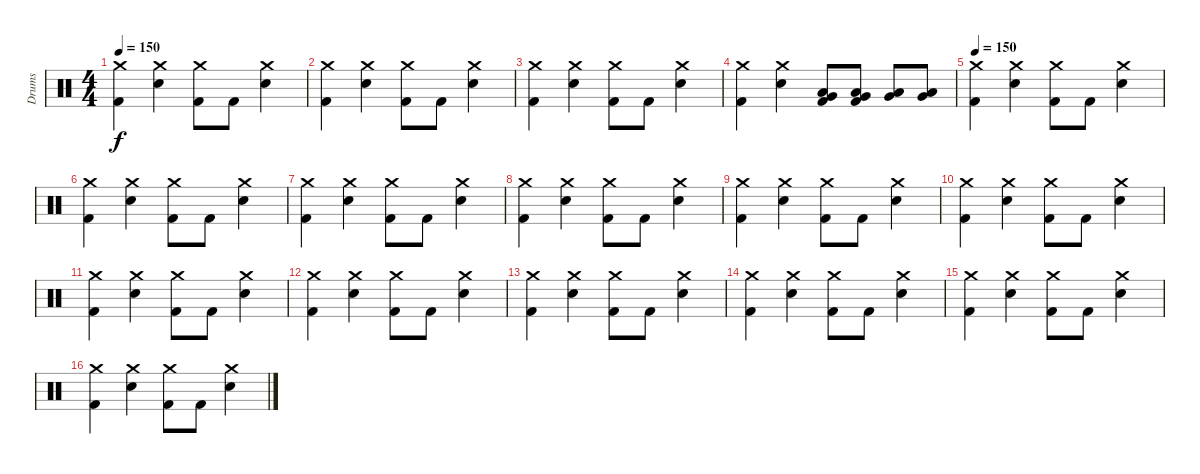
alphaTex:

\track ("Drums" "Drums") {instrument percussion}
\staff {score}
\articulation defaults
\ts (4 4)
\tempo 150
\clef neutral
\ks c
("Crash medium (hit)" "Kick (hit) 2").4{dy f} ("Crash medium (hit)" "Snare (hit) 2").4 ("Crash medium (hit)" "Kick (hit) 2").8 "Kick (hit) 2".8 ("Crash medium (hit)" "Snare (hit) 2").4 |
("Crash medium (hit)" "Kick (hit) 2").4 ("Crash medium (hit)" "Snare (hit) 2").4 ("Crash medium (hit)" "Kick (hit) 2").8 "Kick (hit) 2".8 ("Crash medium (hit)" "Snare (hit) 2").4 |
("Crash medium (hit)" "Kick (hit) 2").4 ("Crash medium (hit)" "Snare (hit) 2").4 ("Crash medium (hit)" "Kick (hit) 2").8 "Kick (hit) 2".8 ("Crash medium (hit)" "Snare (hit) 2").4 |
("Crash medium (hit)" "Kick (hit) 2").4 ("Crash medium (hit)" "Snare (hit) 2").4 ("Very Low Tom (hit)" "Low Floor Tom (hit)" "Kick (hit) 2").8 ("Very Low Tom (hit)" "Low Floor Tom (hit)" "Kick (hit) 2").8 ("Very Low Tom (hit)" "Low Floor Tom (hit)").8 ("Very Low Tom (hit)" "Low Floor Tom (hit)").8 |
\tempo 150
("Crash medium (hit)" "Kick (hit) 2").4 ("Crash medium (hit)" "Snare (hit) 2").4 ("Crash medium (hit)" "Kick (hit) 2").8 "Kick (hit) 2".8 ("Crash medium (hit)" "Snare (hit) 2").4 |
("Crash medium (hit)" "Kick (hit) 2").4 ("Crash medium (hit)" "Snare (hit) 2").4 ("Crash medium (hit)" "Kick (hit) 2").8 "Kick (hit) 2".8 ("Crash medium (hit)" "Snare (hit) 2").4 |
("Crash medium (hit)" "Kick (hit) 2").4 ("Crash medium (hit)" "Snare (hit) 2").4 ("Crash medium (hit)" "Kick (hit) 2").8 "Kick (hit) 2".8 ("Crash medium (hit)" "Snare (hit) 2").4 |
("Crash medium (hit)" "Kick (hit) 2").4 ("Crash medium (hit)" "Snare (hit) 2").4 ("Crash medium (hit)" "Kick (hit) 2").8 "Kick (hit) 2".8 ("Crash medium (hit)" "Snare (hit) 2").4 |
("Crash medium (hit)" "Kick (hit) 2").4 ("Crash medium (hit)" "Snare (hit) 2").4 ("Crash medium (hit)" "Kick (hit) 2").8 "Kick (hit) 2".8 ("Crash medium (hit)" "Snare (hit) 2").4 |
("Crash medium (hit)" "Kick (hit) 2").4 ("Crash medium (hit)" "Snare (hit) 2").4 ("Crash medium (hit)" "Kick (hit) 2").8 "Kick (hit) 2".8 ("Crash medium (hit)" "Snare (hit) 2").4 |
("Crash medium (hit)" "Kick (hit) 2").4 ("Crash medium (hit)" "Snare (hit) 2").4 ("Crash medium (hit)" "Kick (hit) 2").8 "Kick (hit) 2".8 ("Crash medium (hit)" "Snare (hit) 2").4 |
("Crash medium (hit)" "Kick (hit) 2").4 ("Crash medium (hit)" "Snare (hit) 2").4 ("Crash medium (hit)" "Kick (hit) 2").8 "Kick (hit) 2".8 ("Crash medium (hit)" "Snare (hit) 2").4 |
("Crash medium (hit)" "Kick (hit) 2").4 ("Crash medium (hit)" "Snare (hit) 2").4 ("Crash medium (hit)" "Kick (hit) 2").8 "Kick (hit) 2".8 ("Crash medium (hit)" "Snare (hit) 2").4 |
("Crash medium (hit)" "Kick (hit) 2").4 ("Crash medium (hit)" "Snare (hit) 2").4 ("Crash medium (hit)" "Kick (hit) 2").8 "Kick (hit) 2".8 ("Crash medium (hit)" "Snare (hit) 2").4 |
("Crash medium (hit)" "Kick (hit) 2").4 ("Crash medium (hit)" "Snare (hit) 2").4 ("Crash medium (hit)" "Kick (hit) 2").8 "Kick (hit) 2".8 ("Crash medium (hit)" "Snare (hit) 2").4 |
("Crash medium (hit)" "Kick (hit) 2").4 ("Crash medium (hit)" "Snare (hit) 2").4 ("Crash medium (hit)" "Kick (hit) 2").8 "Kick (hit) 2".8 ("Crash medium (hit)" "Snare (hit) 2").4
